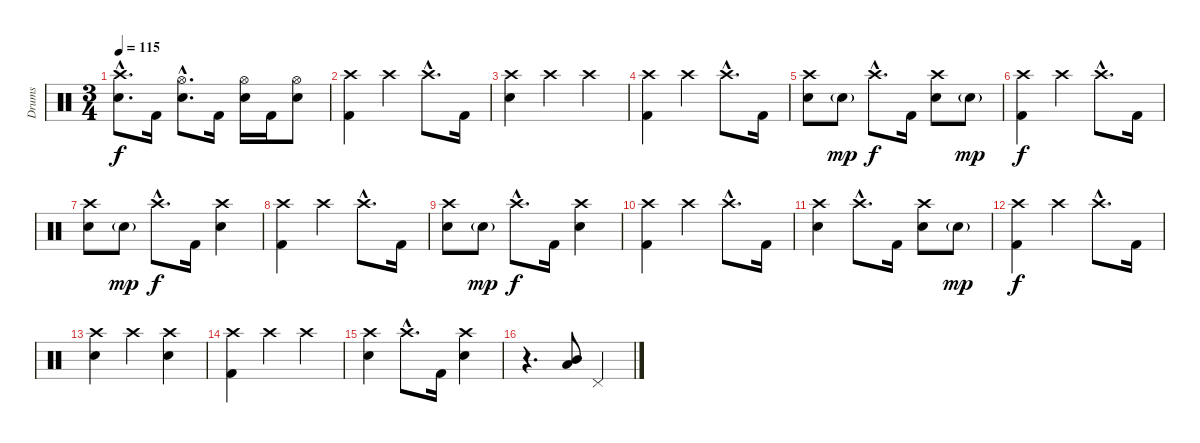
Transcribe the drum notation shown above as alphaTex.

\track ("Drums" "Drums") {instrument percussion}
\staff {score}
\articulation defaults
\ts (3 4)
\tempo 115
\clef neutral
\ks c
("Crash high (hit)"{hac} "Electric Snare (hit)"{hac}).8{d dy f} "Kick (hit) 2".16 ("Hi-Hat (open)"{hac} "Electric Snare (hit)"{hac}).8{d} "Kick (hit) 2".16 ("Hi-Hat (open)" "Electric Snare (hit)").16 "Kick (hit) 2".16 ("Hi-Hat (open)" "Electric Snare (hit)").8 |
\section ("" "")
("Crash high (hit)" "Kick (hit) 2").4 "Crash high (hit)".4 "Crash high (hit)"{hac}.8{d} "Kick (hit) 2".16 |
("Crash high (hit)" "Electric Snare (hit)").4 "Crash high (hit)".4 "Crash high (hit)".4 |
("Crash high (hit)" "Kick (hit) 2").4 "Crash high (hit)".4 "Crash high (hit)"{hac}.8{d} "Kick (hit) 2".16 |
("Crash high (hit)" "Electric Snare (hit)").8 "Electric Snare (hit)"{g}.8{dy mp} "Crash high (hit)"{hac}.8{d dy f} "Kick (hit) 2".16 ("Crash high (hit)" "Electric Snare (hit)").8 "Electric Snare (hit)"{g}.8{dy mp} |
("Crash high (hit)" "Kick (hit) 2").4{dy f} "Crash high (hit)".4 "Crash high (hit)"{hac}.8{d} "Kick (hit) 2".16 |
("Crash high (hit)" "Electric Snare (hit)").8 "Electric Snare (hit)"{g}.8{dy mp} "Crash high (hit)"{hac}.8{d dy f} "Kick (hit) 2".16 ("Crash high (hit)" "Electric Snare (hit)").4 |
("Crash high (hit)" "Kick (hit) 2").4 "Crash high (hit)".4 "Crash high (hit)"{hac}.8{d} "Kick (hit) 2".16 |
("Crash high (hit)" "Electric Snare (hit)").8 "Electric Snare (hit)"{g}.8{dy mp} "Crash high (hit)"{hac}.8{d dy f} "Kick (hit) 2".16 ("Crash high (hit)" "Electric Snare (hit)").4 |
("Crash high (hit)" "Kick (hit) 2").4 "Crash high (hit)".4 "Crash high (hit)"{hac}.8{d} "Kick (hit) 2".16 |
("Crash high (hit)" "Electric Snare (hit)").4 "Crash high (hit)"{hac}.8{d} "Kick (hit) 2".16 ("Crash high (hit)" "Electric Snare (hit)").8 "Electric Snare (hit)"{g}.8{dy mp} |
("Crash high (hit)" "Kick (hit) 2").4{dy f} "Crash high (hit)".4 "Crash high (hit)"{hac}.8{d} "Kick (hit) 2".16 |
("Crash high (hit)" "Electric Snare (hit)").4 "Crash high (hit)".4 ("Crash high (hit)" "Electric Snare (hit)").4 |
("Crash high (hit)" "Kick (hit) 2").4 "Crash high (hit)".4 "Crash high (hit)".4 |
("Crash high (hit)" "Electric Snare (hit)").4 "Crash high (hit)"{hac}.8{d} "Kick (hit) 2".16 ("Crash high (hit)" "Electric Snare (hit)").4 |
r.4{d} ("Mid Tom (hit)" "Low Tom (hit)").8 "Pedal Hi-Hat (hit)".4
